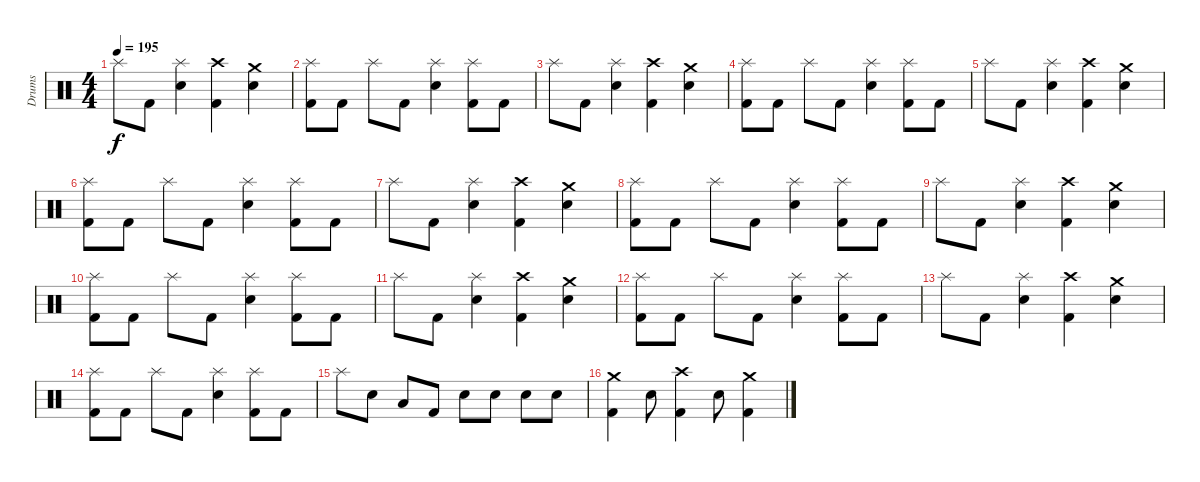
\track ("Drums" "Drums") {instrument percussion}
\staff {score}
\articulation defaults
\ts (4 4)
\tempo 195
\clef neutral
\ks c "Splash (hit)".8{dy f} "Kick (hit) 2".8
("Splash (hit)" "Snare (hit) 2").4 ("Crash high (hit)" "Kick (hit) 2").4 ("Crash medium (hit)" "Snare (hit) 2").4 |
("Splash (hit)" "Kick (hit) 2").8 "Kick (hit) 2".8 "Splash (hit)".8 "Kick (hit) 2".8 ("Splash (hit)" "Snare (hit) 2").4 ("Splash (hit)" "Kick (hit) 2").8 "Kick (hit) 2".8 |
"Splash (hit)".8 "Kick (hit) 2".8 ("Splash (hit)" "Snare (hit) 2").4 ("Crash high (hit)" "Kick (hit) 2").4 ("Crash medium (hit)" "Snare (hit) 2").4 |
("Splash (hit)" "Kick (hit) 2").8 "Kick (hit) 2".8 "Splash (hit)".8 "Kick (hit) 2".8 ("Splash (hit)" "Snare (hit) 2").4 ("Splash (hit)" "Kick (hit) 2").8 "Kick (hit) 2".8 |
"Splash (hit)".8 "Kick (hit) 2".8 ("Splash (hit)" "Snare (hit) 2").4 ("Crash high (hit)" "Kick (hit) 2").4 ("Crash medium (hit)" "Snare (hit) 2").4 |
("Splash (hit)" "Kick (hit) 2").8 "Kick (hit) 2".8 "Splash (hit)".8 "Kick (hit) 2".8 ("Splash (hit)" "Snare (hit) 2").4 ("Splash (hit)" "Kick (hit) 2").8 "Kick (hit) 2".8 |
"Splash (hit)".8 "Kick (hit) 2".8 ("Splash (hit)" "Snare (hit) 2").4 ("Crash high (hit)" "Kick (hit) 2").4 ("Crash medium (hit)" "Snare (hit) 2").4 |
("Splash (hit)" "Kick (hit) 2").8 "Kick (hit) 2".8 "Splash (hit)".8 "Kick (hit) 2".8 ("Splash (hit)" "Snare (hit) 2").4 ("Splash (hit)" "Kick (hit) 2").8 "Kick (hit) 2".8 |
"Splash (hit)".8 "Kick (hit) 2".8 ("Splash (hit)" "Snare (hit) 2").4 ("Crash high (hit)" "Kick (hit) 2").4 ("Crash medium (hit)" "Snare (hit) 2").4 |
("Splash (hit)" "Kick (hit) 2").8 "Kick (hit) 2".8 "Splash (hit)".8 "Kick (hit) 2".8 ("Splash (hit)" "Snare (hit) 2").4 ("Splash (hit)" "Kick (hit) 2").8 "Kick (hit) 2".8 |
"Splash (hit)".8 "Kick (hit) 2".8 ("Splash (hit)" "Snare (hit) 2").4 ("Crash high (hit)" "Kick (hit) 2").4 ("Crash medium (hit)" "Snare (hit) 2").4 |
("Splash (hit)" "Kick (hit) 2").8 "Kick (hit) 2".8 "Splash (hit)".8 "Kick (hit) 2".8 ("Splash (hit)" "Snare (hit) 2").4 ("Splash (hit)" "Kick (hit) 2").8 "Kick (hit) 2".8 |
"Splash (hit)".8 "Kick (hit) 2".8 ("Splash (hit)" "Snare (hit) 2").4 ("Crash high (hit)" "Kick (hit) 2").4 ("Crash medium (hit)" "Snare (hit) 2").4 |
("Splash (hit)" "Kick (hit) 2").8 "Kick (hit) 2".8 "Splash (hit)".8 "Kick (hit) 2".8 ("Splash (hit)" "Snare (hit) 2").4 ("Splash (hit)" "Kick (hit) 2").8 "Kick (hit) 2".8 |
"Splash (hit)".8 "Snare (hit) 2".8 "Low Tom (hit)".8 "Kick (hit) 2".8 "Snare (hit) 2".8 "Snare (hit) 2".8 "Snare (hit) 2".8 "Snare (hit) 2".8 |
("Crash medium (hit)" "Kick (hit) 2").4 "Snare (hit) 2".8 ("Crash high (hit)" "Kick (hit) 2").4 "Snare (hit) 2".8 ("Crash medium (hit)" "Kick (hit) 2").4
